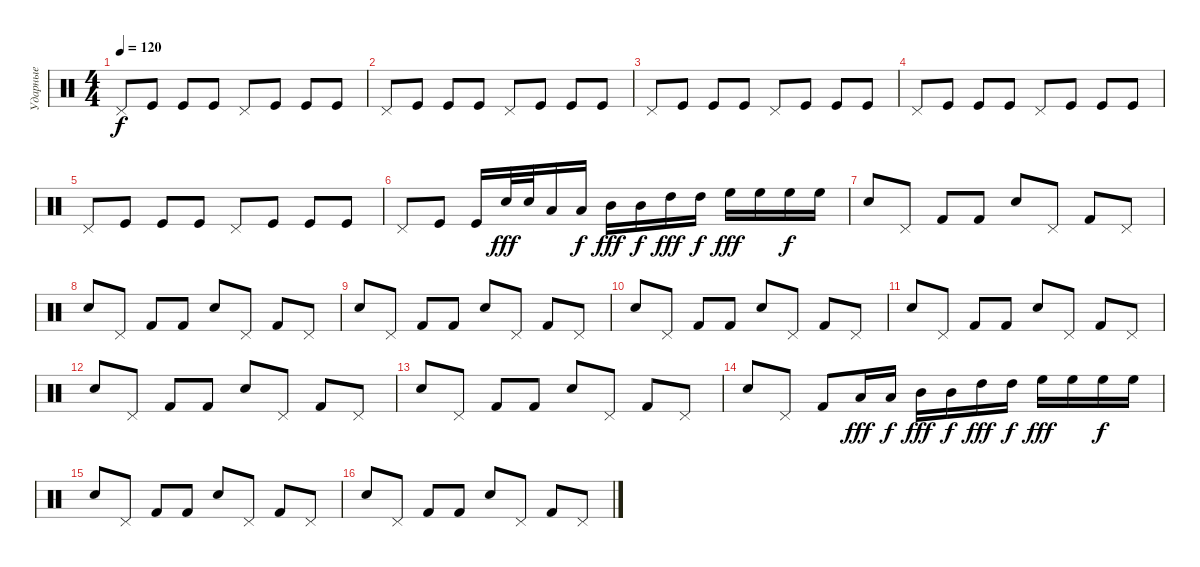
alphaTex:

\track ("Ударные" "Ударные") {instrument percussion}
\staff {score}
\articulation defaults
\ts (4 4)
\tempo 120
\clef neutral
\ks c "Pedal Hi-Hat (hit)".8{dy f} "Kick (hit)".8 "Kick (hit)".8 "Kick (hit)".8 "Pedal Hi-Hat (hit)".8 "Kick (hit)".8 "Kick (hit)".8 "Kick (hit)".8
|
"Pedal Hi-Hat (hit)".8 "Kick (hit)".8 "Kick (hit)".8 "Kick (hit)".8 "Pedal Hi-Hat (hit)".8 "Kick (hit)".8 "Kick (hit)".8 "Kick (hit)".8 |
"Pedal Hi-Hat (hit)".8 "Kick (hit)".8 "Kick (hit)".8 "Kick (hit)".8 "Pedal Hi-Hat (hit)".8 "Kick (hit)".8 "Kick (hit)".8 "Kick (hit)".8 |
"Pedal Hi-Hat (hit)".8 "Kick (hit)".8 "Kick (hit)".8 "Kick (hit)".8 "Pedal Hi-Hat (hit)".8 "Kick (hit)".8 "Kick (hit)".8 "Kick (hit)".8 |
"Pedal Hi-Hat (hit)".8 "Kick (hit)".8 "Kick (hit)".8 "Kick (hit)".8 "Pedal Hi-Hat (hit)".8 "Kick (hit)".8 "Kick (hit)".8 "Kick (hit)".8 |
"Pedal Hi-Hat (hit)".8 "Kick (hit)".8 "Kick (hit)".16 "Snare (hit) 2".32{dy fff} "Snare (hit) 2".32 "Low Tom (hit)".16 "Low Tom (hit)".16{dy f} "Mid Tom (hit)".16{dy fff} "Mid Tom (hit)".16{dy f} "High Tom (hit)".16{dy fff} "High Tom (hit)".16{dy f} "High Floor Tom (hit)".16{dy fff} "High Floor Tom (hit)".16 "High Floor Tom (hit)".16{dy f} "High Floor Tom (hit)".16 |
"Electric Snare (hit)".8 "Pedal Hi-Hat (hit)".8 "Kick (hit) 2".8 "Kick (hit) 2".8 "Electric Snare (hit)".8 "Pedal Hi-Hat (hit)".8 "Kick (hit) 2".8 "Pedal Hi-Hat (hit)".8 |
"Electric Snare (hit)".8 "Pedal Hi-Hat (hit)".8 "Kick (hit) 2".8 "Kick (hit) 2".8 "Electric Snare (hit)".8 "Pedal Hi-Hat (hit)".8 "Kick (hit) 2".8 "Pedal Hi-Hat (hit)".8 |
"Electric Snare (hit)".8 "Pedal Hi-Hat (hit)".8 "Kick (hit) 2".8 "Kick (hit) 2".8 "Electric Snare (hit)".8 "Pedal Hi-Hat (hit)".8 "Kick (hit) 2".8 "Pedal Hi-Hat (hit)".8 |
"Electric Snare (hit)".8 "Pedal Hi-Hat (hit)".8 "Kick (hit) 2".8 "Kick (hit) 2".8 "Electric Snare (hit)".8 "Pedal Hi-Hat (hit)".8 "Kick (hit) 2".8 "Pedal Hi-Hat (hit)".8 |
"Electric Snare (hit)".8 "Pedal Hi-Hat (hit)".8 "Kick (hit) 2".8 "Kick (hit) 2".8 "Electric Snare (hit)".8 "Pedal Hi-Hat (hit)".8 "Kick (hit) 2".8 "Pedal Hi-Hat (hit)".8 |
"Electric Snare (hit)".8 "Pedal Hi-Hat (hit)".8 "Kick (hit) 2".8 "Kick (hit) 2".8 "Electric Snare (hit)".8 "Pedal Hi-Hat (hit)".8 "Kick (hit) 2".8 "Pedal Hi-Hat (hit)".8 |
"Electric Snare (hit)".8 "Pedal Hi-Hat (hit)".8 "Kick (hit) 2".8 "Kick (hit) 2".8 "Electric Snare (hit)".8 "Pedal Hi-Hat (hit)".8 "Kick (hit) 2".8 "Pedal Hi-Hat (hit)".8 |
"Electric Snare (hit)".8 "Pedal Hi-Hat (hit)".8 "Kick (hit) 2".8 "Low Tom (hit)".16{dy fff} "Low Tom (hit)".16{dy f} "Mid Tom (hit)".16{dy fff} "Mid Tom (hit)".16{dy f} "High Tom (hit)".16{dy fff} "High Tom (hit)".16{dy f} "High Floor Tom (hit)".16{dy fff} "High Floor Tom (hit)".16 "High Floor Tom (hit)".16{dy f} "High Floor Tom (hit)".16 |
"Electric Snare (hit)".8 "Pedal Hi-Hat (hit)".8 "Kick (hit) 2".8 "Kick (hit) 2".8 "Electric Snare (hit)".8 "Pedal Hi-Hat (hit)".8 "Kick (hit) 2".8 "Pedal Hi-Hat (hit)".8 |
"Electric Snare (hit)".8 "Pedal Hi-Hat (hit)".8 "Kick (hit) 2".8 "Kick (hit) 2".8 "Electric Snare (hit)".8 "Pedal Hi-Hat (hit)".8 "Kick (hit) 2".8 "Pedal Hi-Hat (hit)".8
